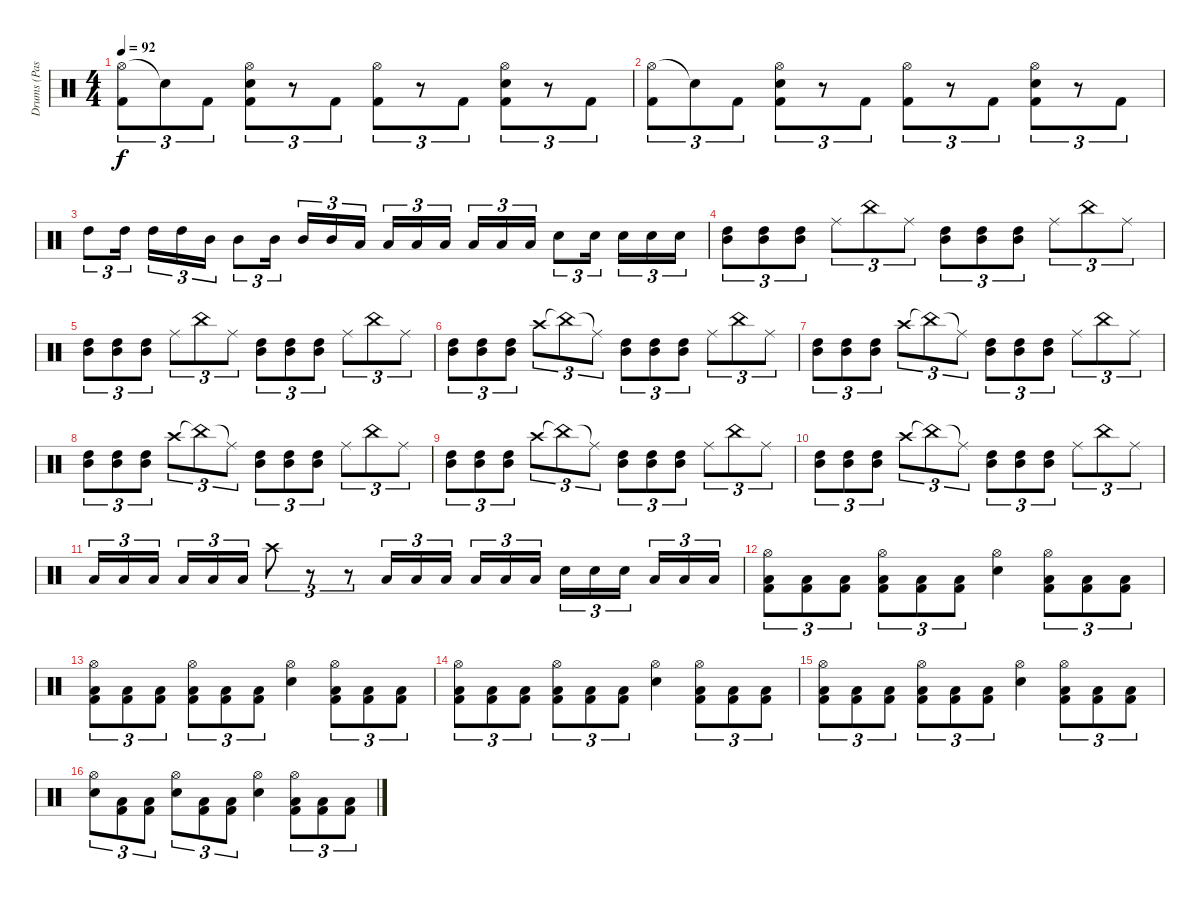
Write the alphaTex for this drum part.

\track ("Drums (Pasanen)" "Drums (Pas") {instrument percussion}
\staff {score}
\articulation defaults
\ts (4 4)
\tempo 92
\clef neutral
\ks c
("Hi-Hat (open)" "Kick (hit) 2").8{tu (3 2) dy f} "Snare (hit)"{t}.8{tu (3 2)} "Kick (hit) 2".8{tu (3 2)} ("Hi-Hat (open)" "Electric Snare (hit)" "Kick (hit) 2").8{tu (3 2)} r.8{tu (3 2)} "Kick (hit) 2".8{tu (3 2)} ("Hi-Hat (open)" "Kick (hit) 2").8{tu (3 2)} r.8{tu (3 2)} "Kick (hit) 2".8{tu (3 2)} ("Hi-Hat (open)" "Electric Snare (hit)" "Kick (hit) 2").8{tu (3 2)} r.8{tu (3 2)} "Kick (hit) 2".8{tu (3 2)} |
("Hi-Hat (open)" "Kick (hit) 2").8{tu (3 2)} "Snare (hit)"{t}.8{tu (3 2)} "Kick (hit) 2".8{tu (3 2)} ("Hi-Hat (open)" "Electric Snare (hit)" "Kick (hit) 2").8{tu (3 2)} r.8{tu (3 2)} "Kick (hit) 2".8{tu (3 2)} ("Hi-Hat (open)" "Kick (hit) 2").8{tu (3 2)} r.8{tu (3 2)} "Kick (hit) 2".8{tu (3 2)} ("Hi-Hat (open)" "Electric Snare (hit)" "Kick (hit) 2").8{tu (3 2)} r.8{tu (3 2)} "Kick (hit) 2".8{tu (3 2)} |
"High Tom (hit)".8{tu (3 2)} "High Tom (hit)".16{tu (3 2) beam splitsecondary} "High Tom (hit)".16{tu (3 2)} "High Tom (hit)".16{tu (3 2)} "Mid Tom (hit)".16{tu (3 2)} "Mid Tom (hit)".8{tu (3 2)} "Mid Tom (hit)".16{tu (3 2) beam splitsecondary} "Mid Tom (hit)".16{tu (3 2)} "Mid Tom (hit)".16{tu (3 2)} "Low Tom (hit)".16{tu (3 2)} "Low Tom (hit)".16{tu (3 2)} "Low Tom (hit)".16{tu (3 2)} "Low Tom (hit)".16{tu (3 2) beam splitsecondary} "Low Tom (hit)".16{tu (3 2)} "Low Tom (hit)".16{tu (3 2)} "Low Tom (hit)".16{tu (3 2)} "Electric Snare (hit)".8{tu (3 2)} "Electric Snare (hit)".16{tu (3 2) beam splitsecondary} "Electric Snare (hit)".16{tu (3 2)} "Electric Snare (hit)".16{tu (3 2)} "Electric Snare (hit)".16{tu (3 2)} |
("High Tom (hit)" "Mid Tom (hit)").8{tu (3 2)} ("Mid Tom (hit)" "High Tom (hit)").8{tu (3 2)} ("Mid Tom (hit)" "High Tom (hit)").8{tu (3 2)} "Ride (middle)".8{tu (3 2)} "China (hit)".8{tu (3 2)} "Ride (middle)".8{tu (3 2)} ("High Tom (hit)" "Mid Tom (hit)").8{tu (3 2)} ("Mid Tom (hit)" "High Tom (hit)").8{tu (3 2)} ("Mid Tom (hit)" "High Tom (hit)").8{tu (3 2)} "Ride (middle)".8{tu (3 2)} "China (hit)".8{tu (3 2)} "Ride (middle)".8{tu (3 2)} |
("High Tom (hit)" "Mid Tom (hit)").8{tu (3 2)} ("Mid Tom (hit)" "High Tom (hit)").8{tu (3 2)} ("Mid Tom (hit)" "High Tom (hit)").8{tu (3 2)} "Ride (middle)".8{tu (3 2)} "China (hit)".8{tu (3 2)} "Ride (middle)".8{tu (3 2)} ("High Tom (hit)" "Mid Tom (hit)").8{tu (3 2)} ("Mid Tom (hit)" "High Tom (hit)").8{tu (3 2)} ("Mid Tom (hit)" "High Tom (hit)").8{tu (3 2)} "Ride (middle)".8{tu (3 2)} "China (hit)".8{tu (3 2)} "Ride (middle)".8{tu (3 2)} |
("High Tom (hit)" "Mid Tom (hit)").8{tu (3 2)} ("Mid Tom (hit)" "High Tom (hit)").8{tu (3 2)} ("Mid Tom (hit)" "High Tom (hit)").8{tu (3 2)} "Crash high (hit)".8{tu (3 2)} "China (hit)"{t}.8{tu (3 2)} "Ride (middle)"{t}.8{tu (3 2)} ("High Tom (hit)" "Mid Tom (hit)").8{tu (3 2)} ("Mid Tom (hit)" "High Tom (hit)").8{tu (3 2)} ("Mid Tom (hit)" "High Tom (hit)").8{tu (3 2)} "Ride (middle)".8{tu (3 2)} "China (hit)".8{tu (3 2)} "Ride (middle)".8{tu (3 2)} |
("High Tom (hit)" "Mid Tom (hit)").8{tu (3 2)} ("Mid Tom (hit)" "High Tom (hit)").8{tu (3 2)} ("Mid Tom (hit)" "High Tom (hit)").8{tu (3 2)} "Crash high (hit)".8{tu (3 2)} "China (hit)"{t}.8{tu (3 2)} "Ride (middle)"{t}.8{tu (3 2)} ("High Tom (hit)" "Mid Tom (hit)").8{tu (3 2)} ("Mid Tom (hit)" "High Tom (hit)").8{tu (3 2)} ("Mid Tom (hit)" "High Tom (hit)").8{tu (3 2)} "Ride (middle)".8{tu (3 2)} "China (hit)".8{tu (3 2)} "Ride (middle)".8{tu (3 2)} |
("High Tom (hit)" "Mid Tom (hit)").8{tu (3 2)} ("Mid Tom (hit)" "High Tom (hit)").8{tu (3 2)} ("Mid Tom (hit)" "High Tom (hit)").8{tu (3 2)} "Crash high (hit)".8{tu (3 2)} "China (hit)"{t}.8{tu (3 2)} "Ride (middle)"{t}.8{tu (3 2)} ("High Tom (hit)" "Mid Tom (hit)").8{tu (3 2)} ("Mid Tom (hit)" "High Tom (hit)").8{tu (3 2)} ("Mid Tom (hit)" "High Tom (hit)").8{tu (3 2)} "Ride (middle)".8{tu (3 2)} "China (hit)".8{tu (3 2)} "Ride (middle)".8{tu (3 2)} |
("High Tom (hit)" "Mid Tom (hit)").8{tu (3 2)} ("Mid Tom (hit)" "High Tom (hit)").8{tu (3 2)} ("Mid Tom (hit)" "High Tom (hit)").8{tu (3 2)} "Crash high (hit)".8{tu (3 2)} "China (hit)"{t}.8{tu (3 2)} "Ride (middle)"{t}.8{tu (3 2)} ("High Tom (hit)" "Mid Tom (hit)").8{tu (3 2)} ("Mid Tom (hit)" "High Tom (hit)").8{tu (3 2)} ("Mid Tom (hit)" "High Tom (hit)").8{tu (3 2)} "Ride (middle)".8{tu (3 2)} "China (hit)".8{tu (3 2)} "Ride (middle)".8{tu (3 2)} |
("High Tom (hit)" "Mid Tom (hit)").8{tu (3 2)} ("Mid Tom (hit)" "High Tom (hit)").8{tu (3 2)} ("Mid Tom (hit)" "High Tom (hit)").8{tu (3 2)} "Crash high (hit)".8{tu (3 2)} "China (hit)"{t}.8{tu (3 2)} "Ride (middle)"{t}.8{tu (3 2)} ("High Tom (hit)" "Mid Tom (hit)").8{tu (3 2)} ("Mid Tom (hit)" "High Tom (hit)").8{tu (3 2)} ("Mid Tom (hit)" "High Tom (hit)").8{tu (3 2)} "Ride (middle)".8{tu (3 2)} "China (hit)".8{tu (3 2)} "Ride (middle)".8{tu (3 2)} |
"Low Tom (hit)".16{tu (3 2)} "Low Tom (hit)".16{tu (3 2)} "Low Tom (hit)".16{tu (3 2) beam splitsecondary} "Low Tom (hit)".16{tu (3 2)} "Low Tom (hit)".16{tu (3 2)} "Low Tom (hit)".16{tu (3 2)} "Crash high (hit)".8{tu (3 2)} r.8{tu (3 2)} r.8{tu (3 2)} "Low Tom (hit)".16{tu (3 2)} "Low Tom (hit)".16{tu (3 2)} "Low Tom (hit)".16{tu (3 2) beam splitsecondary} "Low Tom (hit)".16{tu (3 2)} "Low Tom (hit)".16{tu (3 2)} "Low Tom (hit)".16{tu (3 2)} "Electric Snare (hit)".16{tu (3 2)} "Electric Snare (hit)".16{tu (3 2)} "Electric Snare (hit)".16{tu (3 2) beam splitsecondary} "Low Tom (hit)".16{tu (3 2)} "Low Tom (hit)".16{tu (3 2)} "Low Tom (hit)".16{tu (3 2)} |
("Hi-Hat (open)" "Low Tom (hit)" "Kick (hit) 2").8{tu (3 2)} ("Low Tom (hit)" "Kick (hit) 2").8{tu (3 2)} ("Low Tom (hit)" "Kick (hit) 2").8{tu (3 2)} ("Hi-Hat (open)" "Low Tom (hit)" "Kick (hit) 2").8{tu (3 2)} ("Low Tom (hit)" "Kick (hit) 2").8{tu (3 2)} ("Low Tom (hit)" "Kick (hit) 2").8{tu (3 2)} ("Hi-Hat (open)" "Electric Snare (hit)").4 ("Hi-Hat (open)" "Low Tom (hit)" "Kick (hit) 2").8{tu (3 2)} ("Low Tom (hit)" "Kick (hit) 2").8{tu (3 2)} ("Low Tom (hit)" "Kick (hit) 2").8{tu (3 2)} |
("Hi-Hat (open)" "Low Tom (hit)" "Kick (hit) 2").8{tu (3 2)} ("Low Tom (hit)" "Kick (hit) 2").8{tu (3 2)} ("Low Tom (hit)" "Kick (hit) 2").8{tu (3 2)} ("Hi-Hat (open)" "Low Tom (hit)" "Kick (hit) 2").8{tu (3 2)} ("Low Tom (hit)" "Kick (hit) 2").8{tu (3 2)} ("Low Tom (hit)" "Kick (hit) 2").8{tu (3 2)} ("Hi-Hat (open)" "Electric Snare (hit)").4 ("Hi-Hat (open)" "Low Tom (hit)" "Kick (hit) 2").8{tu (3 2)} ("Low Tom (hit)" "Kick (hit) 2").8{tu (3 2)} ("Low Tom (hit)" "Kick (hit) 2").8{tu (3 2)} |
("Hi-Hat (open)" "Low Tom (hit)" "Kick (hit) 2").8{tu (3 2)} ("Low Tom (hit)" "Kick (hit) 2").8{tu (3 2)} ("Low Tom (hit)" "Kick (hit) 2").8{tu (3 2)} ("Hi-Hat (open)" "Low Tom (hit)" "Kick (hit) 2").8{tu (3 2)} ("Low Tom (hit)" "Kick (hit) 2").8{tu (3 2)} ("Low Tom (hit)" "Kick (hit) 2").8{tu (3 2)} ("Hi-Hat (open)" "Electric Snare (hit)").4 ("Hi-Hat (open)" "Low Tom (hit)" "Kick (hit) 2").8{tu (3 2)} ("Low Tom (hit)" "Kick (hit) 2").8{tu (3 2)} ("Low Tom (hit)" "Kick (hit) 2").8{tu (3 2)} |
("Hi-Hat (open)" "Low Tom (hit)" "Kick (hit) 2").8{tu (3 2)} ("Low Tom (hit)" "Kick (hit) 2").8{tu (3 2)} ("Low Tom (hit)" "Kick (hit) 2").8{tu (3 2)} ("Hi-Hat (open)" "Low Tom (hit)" "Kick (hit) 2").8{tu (3 2)} ("Low Tom (hit)" "Kick (hit) 2").8{tu (3 2)} ("Low Tom (hit)" "Kick (hit) 2").8{tu (3 2)} ("Hi-Hat (open)" "Electric Snare (hit)").4 ("Hi-Hat (open)" "Low Tom (hit)" "Kick (hit) 2").8{tu (3 2)} ("Low Tom (hit)" "Kick (hit) 2").8{tu (3 2)} ("Low Tom (hit)" "Kick (hit) 2").8{tu (3 2)} |
("Hi-Hat (open)" "Electric Snare (hit)").8{tu (3 2)} ("Low Tom (hit)" "Kick (hit) 2").8{tu (3 2)} ("Low Tom (hit)" "Kick (hit) 2").8{tu (3 2)} ("Hi-Hat (open)" "Electric Snare (hit)").8{tu (3 2)} ("Low Tom (hit)" "Kick (hit) 2").8{tu (3 2)} ("Low Tom (hit)" "Kick (hit) 2").8{tu (3 2)} ("Hi-Hat (open)" "Electric Snare (hit)").4 ("Hi-Hat (open)" "Low Tom (hit)" "Kick (hit) 2").8{tu (3 2)} ("Low Tom (hit)" "Kick (hit) 2").8{tu (3 2)} ("Low Tom (hit)" "Kick (hit) 2").8{tu (3 2)}
